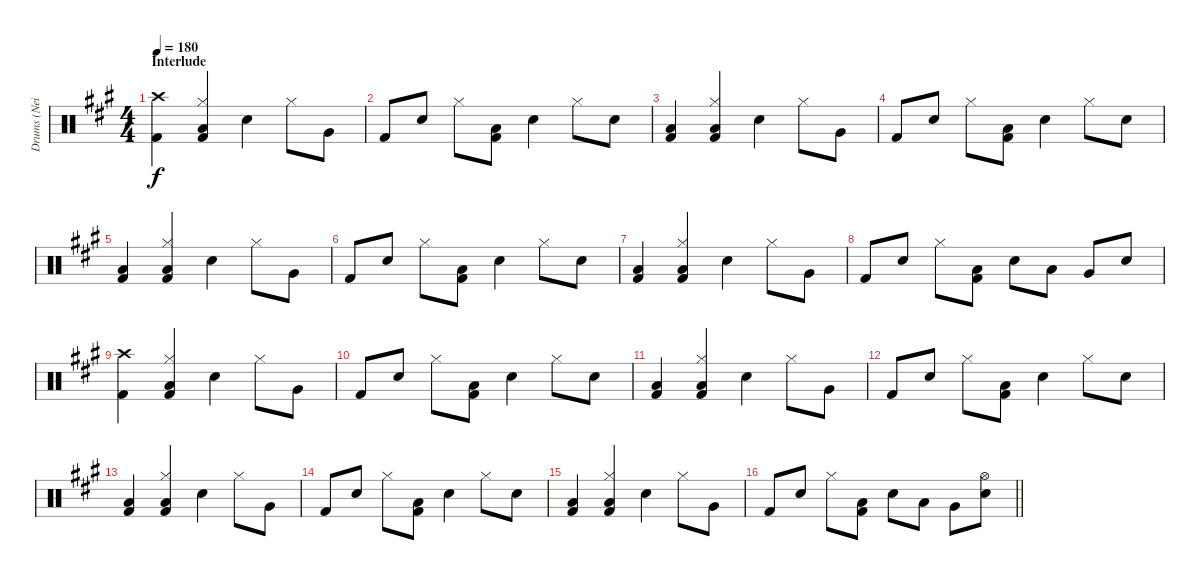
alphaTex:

\track ("Drums (Neil Sanderson)" "Drums (Nei") {instrument percussion}
\staff {score}
\articulation defaults
\ts (4 4)
\section ("" "Interlude")
\tempo 180
\clef neutral
\ks f#minor
("Crash high (hit)" "Kick (hit) 2").4{dy f} ("Hi-Hat (closed)" "Low Tom (hit)" "Kick (hit) 2").4 "Electric Snare (hit)".4 "Hi-Hat (closed)".8 "Very Low Tom (hit)".8 |
"Kick (hit) 2".8 "Electric Snare (hit)".8 "Hi-Hat (closed)".8 ("Low Floor Tom (hit)" "Kick (hit) 2").8 "Electric Snare (hit)".4 "Hi-Hat (closed)".8 "Electric Snare (hit)".8 |
("Low Tom (hit)" "Kick (hit) 2").4 ("Hi-Hat (closed)" "Low Tom (hit)" "Kick (hit) 2").4 "Electric Snare (hit)".4 "Hi-Hat (closed)".8 "Very Low Tom (hit)".8 |
"Kick (hit) 2".8 "Electric Snare (hit)".8 "Hi-Hat (closed)".8 ("Low Floor Tom (hit)" "Kick (hit) 2").8 "Electric Snare (hit)".4 "Hi-Hat (closed)".8 "Electric Snare (hit)".8 |
("Low Tom (hit)" "Kick (hit) 2").4 ("Hi-Hat (closed)" "Low Tom (hit)" "Kick (hit) 2").4 "Electric Snare (hit)".4 "Hi-Hat (closed)".8 "Very Low Tom (hit)".8 |
"Kick (hit) 2".8 "Electric Snare (hit)".8 "Hi-Hat (closed)".8 ("Low Floor Tom (hit)" "Kick (hit) 2").8 "Electric Snare (hit)".4 "Hi-Hat (closed)".8 "Electric Snare (hit)".8 |
("Low Tom (hit)" "Kick (hit) 2").4 ("Hi-Hat (closed)" "Low Tom (hit)" "Kick (hit) 2").4 "Electric Snare (hit)".4 "Hi-Hat (closed)".8 "Very Low Tom (hit)".8 |
"Kick (hit) 2".8 "Electric Snare (hit)".8 "Hi-Hat (closed)".8 ("Low Floor Tom (hit)" "Kick (hit) 2").8 "Electric Snare (hit)".8 "Low Tom (hit)".8 "Very Low Tom (hit)".8 "Electric Snare (hit)".8 |
("Crash high (hit)" "Kick (hit) 2").4 ("Hi-Hat (closed)" "Low Tom (hit)" "Kick (hit) 2").4 "Electric Snare (hit)".4 "Hi-Hat (closed)".8 "Very Low Tom (hit)".8 |
"Kick (hit) 2".8 "Electric Snare (hit)".8 "Hi-Hat (closed)".8 ("Low Floor Tom (hit)" "Kick (hit) 2").8 "Electric Snare (hit)".4 "Hi-Hat (closed)".8 "Electric Snare (hit)".8 |
("Low Tom (hit)" "Kick (hit) 2").4 ("Hi-Hat (closed)" "Low Tom (hit)" "Kick (hit) 2").4 "Electric Snare (hit)".4 "Hi-Hat (closed)".8 "Very Low Tom (hit)".8 |
"Kick (hit) 2".8 "Electric Snare (hit)".8 "Hi-Hat (closed)".8 ("Low Floor Tom (hit)" "Kick (hit) 2").8 "Electric Snare (hit)".4 "Hi-Hat (closed)".8 "Electric Snare (hit)".8 |
("Low Tom (hit)" "Kick (hit) 2").4 ("Hi-Hat (closed)" "Low Tom (hit)" "Kick (hit) 2").4 "Electric Snare (hit)".4 "Hi-Hat (closed)".8 "Very Low Tom (hit)".8 |
"Kick (hit) 2".8 "Electric Snare (hit)".8 "Hi-Hat (closed)".8 ("Low Floor Tom (hit)" "Kick (hit) 2").8 "Electric Snare (hit)".4 "Hi-Hat (closed)".8 "Electric Snare (hit)".8 |
("Low Tom (hit)" "Kick (hit) 2").4 ("Hi-Hat (closed)" "Low Tom (hit)" "Kick (hit) 2").4 "Electric Snare (hit)".4 "Hi-Hat (closed)".8 "Very Low Tom (hit)".8 |
\barLineRight lightlight "Kick (hit) 2".8 "Electric Snare (hit)".8 "Hi-Hat (closed)".8
("Low Floor Tom (hit)" "Kick (hit) 2").8 "Electric Snare (hit)".8 "Low Tom (hit)".8 "Very Low Tom (hit)".8 ("Hi-Hat (open)" "Electric Snare (hit)").8
